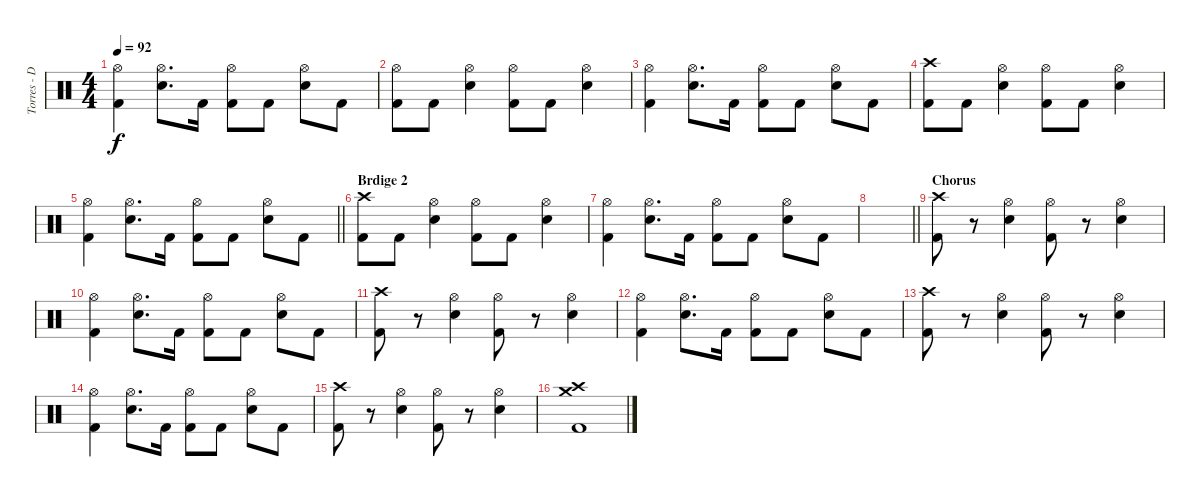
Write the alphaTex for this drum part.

\track ("Torres - Drums" "Torres - D") {instrument percussion}
\staff {score}
\articulation defaults
\ts (4 4)
\tempo 92
\clef neutral
\ks c
("Kick (hit) 2" "Hi-Hat (open)").4{dy f} ("Electric Snare (hit)" "Hi-Hat (open)").8{d} "Kick (hit) 2".16 ("Kick (hit) 2" "Hi-Hat (open)").8 "Kick (hit) 2".8 ("Electric Snare (hit)" "Hi-Hat (open)").8 "Kick (hit) 2".8 |
("Kick (hit) 2" "Hi-Hat (open)").8 "Kick (hit) 2".8 ("Electric Snare (hit)" "Hi-Hat (open)").4 ("Kick (hit) 2" "Hi-Hat (open)").8 "Kick (hit) 2".8 ("Electric Snare (hit)" "Hi-Hat (open)").4 |
("Kick (hit) 2" "Hi-Hat (open)").4 ("Electric Snare (hit)" "Hi-Hat (open)").8{d} "Kick (hit) 2".16 ("Kick (hit) 2" "Hi-Hat (open)").8 "Kick (hit) 2".8 ("Electric Snare (hit)" "Hi-Hat (open)").8 "Kick (hit) 2".8 |
("Kick (hit) 2" "Crash high (hit)").8 "Kick (hit) 2".8 ("Electric Snare (hit)" "Hi-Hat (open)").4 ("Kick (hit) 2" "Hi-Hat (open)").8 "Kick (hit) 2".8 ("Electric Snare (hit)" "Hi-Hat (open)").4 |
\barLineRight lightlight
("Kick (hit) 2" "Hi-Hat (open)").4 ("Electric Snare (hit)" "Hi-Hat (open)").8{d} "Kick (hit) 2".16 ("Kick (hit) 2" "Hi-Hat (open)").8 "Kick (hit) 2".8 ("Electric Snare (hit)" "Hi-Hat (open)").8 "Kick (hit) 2".8 |
\section ("" "Brdige 2")
("Kick (hit) 2" "Crash high (hit)").8 "Kick (hit) 2".8 ("Electric Snare (hit)" "Hi-Hat (open)").4 ("Kick (hit) 2" "Hi-Hat (open)").8 "Kick (hit) 2".8 ("Electric Snare (hit)" "Hi-Hat (open)").4 |
("Kick (hit) 2" "Hi-Hat (open)").4 ("Electric Snare (hit)" "Hi-Hat (open)").8{d} "Kick (hit) 2".16 ("Kick (hit) 2" "Hi-Hat (open)").8 "Kick (hit) 2".8 ("Electric Snare (hit)" "Hi-Hat (open)").8 "Kick (hit) 2".8 |
\barLineRight lightlight
|
\section ("" "Chorus")
("Kick (hit) 2" "Crash high (hit)").8 r.8 ("Electric Snare (hit)" "Hi-Hat (open)").4 ("Kick (hit) 2" "Hi-Hat (open)").8 r.8 ("Electric Snare (hit)" "Hi-Hat (open)").4 |
("Kick (hit) 2" "Hi-Hat (open)").4 ("Electric Snare (hit)" "Hi-Hat (open)").8{d} "Kick (hit) 2".16 ("Kick (hit) 2" "Hi-Hat (open)").8 "Kick (hit) 2".8 ("Electric Snare (hit)" "Hi-Hat (open)").8 "Kick (hit) 2".8 |
("Kick (hit) 2" "Crash high (hit)").8 r.8 ("Electric Snare (hit)" "Hi-Hat (open)").4 ("Kick (hit) 2" "Hi-Hat (open)").8 r.8 ("Electric Snare (hit)" "Hi-Hat (open)").4 |
("Kick (hit) 2" "Hi-Hat (open)").4 ("Electric Snare (hit)" "Hi-Hat (open)").8{d} "Kick (hit) 2".16 ("Kick (hit) 2" "Hi-Hat (open)").8 "Kick (hit) 2".8 ("Electric Snare (hit)" "Hi-Hat (open)").8 "Kick (hit) 2".8 |
("Kick (hit) 2" "Crash high (hit)").8 r.8 ("Electric Snare (hit)" "Hi-Hat (open)").4 ("Kick (hit) 2" "Hi-Hat (open)").8 r.8 ("Electric Snare (hit)" "Hi-Hat (open)").4 |
("Kick (hit) 2" "Hi-Hat (open)").4 ("Electric Snare (hit)" "Hi-Hat (open)").8{d} "Kick (hit) 2".16 ("Kick (hit) 2" "Hi-Hat (open)").8 "Kick (hit) 2".8 ("Electric Snare (hit)" "Hi-Hat (open)").8 "Kick (hit) 2".8 |
("Kick (hit) 2" "Crash high (hit)").8 r.8 ("Electric Snare (hit)" "Hi-Hat (open)").4 ("Kick (hit) 2" "Hi-Hat (open)").8 r.8 ("Electric Snare (hit)" "Hi-Hat (open)").4 |
("Kick (hit) 2" "Crash medium (hit)" "Crash high (hit)").1
